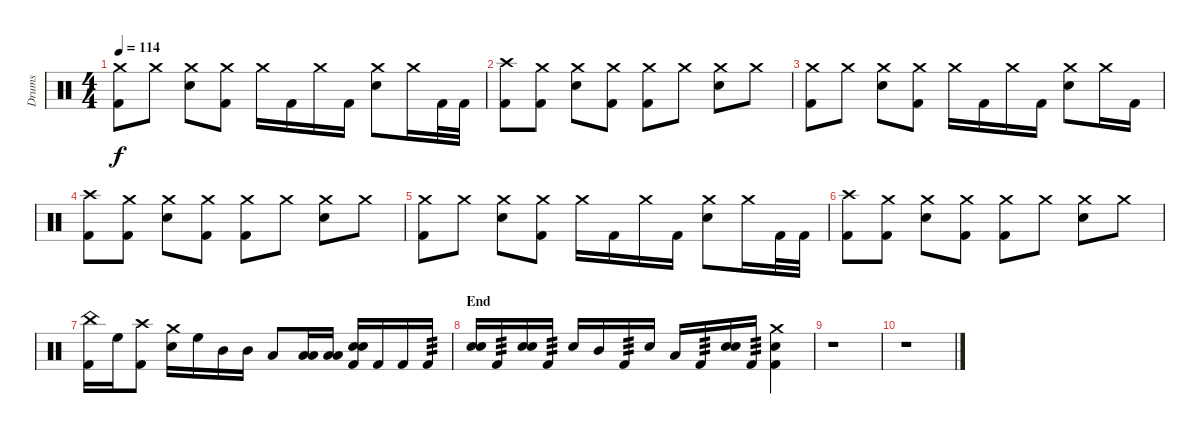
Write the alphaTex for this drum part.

\track ("Drums" "Drums") {instrument percussion}
\staff {score}
\articulation defaults
\ts (4 4)
\tempo 114
\clef neutral
\ks c
("Crash medium (hit)" "Kick (hit) 2").8{dy f} "Crash medium (hit)".8 ("Crash medium (hit)" "Snare (hit) 2").8 ("Crash medium (hit)" "Kick (hit) 2").8 "Crash medium (hit)".16 "Kick (hit) 2".16 "Crash medium (hit)".16 "Kick (hit) 2".16 ("Crash medium (hit)" "Snare (hit) 2").8 "Crash medium (hit)".16 "Kick (hit) 2".32 "Kick (hit) 2".32 |
("Crash high (hit)" "Kick (hit) 2").8 ("Crash medium (hit)" "Kick (hit) 2").8 ("Crash medium (hit)" "Snare (hit) 2").8 ("Crash medium (hit)" "Kick (hit) 2").8 ("Crash medium (hit)" "Kick (hit) 2").8 "Crash medium (hit)".8 ("Crash medium (hit)" "Snare (hit) 2").8 "Crash medium (hit)".8 |
("Crash medium (hit)" "Kick (hit) 2").8 "Crash medium (hit)".8 ("Crash medium (hit)" "Snare (hit) 2").8 ("Crash medium (hit)" "Kick (hit) 2").8 "Crash medium (hit)".16 "Kick (hit) 2".16 "Crash medium (hit)".16 "Kick (hit) 2".16 ("Crash medium (hit)" "Snare (hit) 2").8 "Crash medium (hit)".16 "Kick (hit) 2".16 |
("Crash high (hit)" "Kick (hit) 2").8 ("Crash medium (hit)" "Kick (hit) 2").8 ("Crash medium (hit)" "Snare (hit) 2").8 ("Crash medium (hit)" "Kick (hit) 2").8 ("Crash medium (hit)" "Kick (hit) 2").8 "Crash medium (hit)".8 ("Crash medium (hit)" "Snare (hit) 2").8 "Crash medium (hit)".8 |
("Crash medium (hit)" "Kick (hit) 2").8 "Crash medium (hit)".8 ("Crash medium (hit)" "Snare (hit) 2").8 ("Crash medium (hit)" "Kick (hit) 2").8 "Crash medium (hit)".16 "Kick (hit) 2".16 "Crash medium (hit)".16 "Kick (hit) 2".16 ("Crash medium (hit)" "Snare (hit) 2").8 "Crash medium (hit)".16 "Kick (hit) 2".32 "Kick (hit) 2".32 |
("Crash high (hit)" "Kick (hit) 2").8 ("Crash medium (hit)" "Kick (hit) 2").8 ("Crash medium (hit)" "Snare (hit) 2").8 ("Crash medium (hit)" "Kick (hit) 2").8 ("Crash medium (hit)" "Kick (hit) 2").8 "Crash medium (hit)".8 ("Crash medium (hit)" "Snare (hit) 2").8 "Crash medium (hit)".8 |
("China (hit)" "Kick (hit) 2").16 "High Floor Tom (hit)".16 ("Crash high (hit)" "Kick (hit) 2").8 ("Crash medium (hit)" "Snare (hit) 2").16 "High Floor Tom (hit)".16 "Mid Tom (hit)".16 "Mid Tom (hit)".16 "Low Tom (hit)".8 ("Low Tom (hit)" "Low Floor Tom (hit)").16 ("Low Tom (hit)" "Low Floor Tom (hit)").16 ("Snare (hit) 2" "Snare (hit) 2" "Kick (hit) 2").16 "Kick (hit) 2".16 "Kick (hit) 2".16 "Kick (hit) 2".16{tp 3} |
\section ("" "End")
("Snare (hit) 2" "Snare (hit) 2").16 "Kick (hit) 2".16{tp 3} ("Snare (hit) 2" "Snare (hit) 2").16 "Kick (hit) 2".16{tp 3} "Snare (hit) 2".16 "Mid Tom (hit)".16 "Kick (hit) 2".16{tp 3} "Snare (hit) 2".16 "Low Tom (hit)".16 "Kick (hit) 2".16{tp 3} ("Snare (hit) 2" "Snare (hit) 2").16 "Kick (hit) 2".16{tp 3} ("Crash medium (hit)" "Snare (hit) 2" "Kick (hit) 2").4 |
r.1 |
r.1
